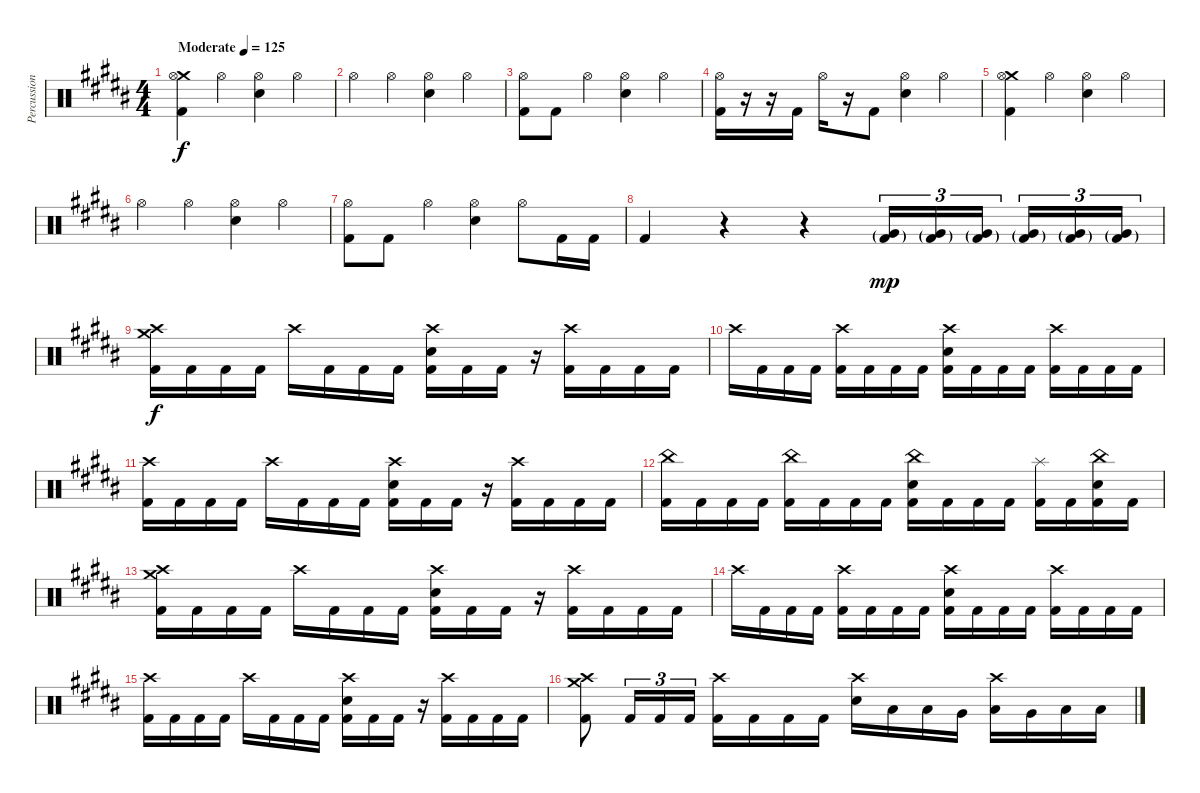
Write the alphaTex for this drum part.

\track ("Percussion" "Percussion") {instrument percussion}
\staff {score}
\articulation defaults
\ts (4 4)
\tempo (125 "Moderate")
\clef neutral
\ks g#minor
("Crash medium (hit)" "Hi-Hat (open)" "Kick (hit) 2").4{dy f} "Hi-Hat (open)".4 ("Hi-Hat (open)" "Electric Snare (hit)").4 "Hi-Hat (open)".4 |
"Hi-Hat (open)".4 "Hi-Hat (open)".4 ("Hi-Hat (open)" "Electric Snare (hit)").4 "Hi-Hat (open)".4 |
("Hi-Hat (open)" "Kick (hit) 2").8 "Kick (hit) 2".8 "Hi-Hat (open)".4 ("Hi-Hat (open)" "Electric Snare (hit)").4 "Hi-Hat (open)".4 |
("Hi-Hat (open)" "Kick (hit) 2").16 r.16 r.16 "Kick (hit) 2".16 "Hi-Hat (open)".16 r.16 "Kick (hit) 2".8 ("Hi-Hat (open)" "Electric Snare (hit)").4 "Hi-Hat (open)".4 |
("Crash medium (hit)" "Hi-Hat (open)" "Kick (hit) 2").4 "Hi-Hat (open)".4 ("Hi-Hat (open)" "Electric Snare (hit)").4 "Hi-Hat (open)".4 |
"Hi-Hat (open)".4 "Hi-Hat (open)".4 ("Hi-Hat (open)" "Electric Snare (hit)").4 "Hi-Hat (open)".4 |
("Hi-Hat (open)" "Kick (hit) 2").8 "Kick (hit) 2".8 "Hi-Hat (open)".4 ("Hi-Hat (open)" "Electric Snare (hit)").4 "Hi-Hat (open)".8 "Kick (hit) 2".16 "Kick (hit) 2".16 |
"Kick (hit) 2".4 r.4 r.4 ("Very Low Tom (hit)"{g} "Kick (hit) 2"{g}).16{tu (3 2) dy mp} ("Very Low Tom (hit)"{g} "Kick (hit) 2"{g}).16{tu (3 2)} ("Very Low Tom (hit)"{g} "Kick (hit) 2"{g}).16{tu (3 2) beam splitsecondary} ("Very Low Tom (hit)"{g} "Kick (hit) 2"{g}).16{tu (3 2)} ("Very Low Tom (hit)"{g} "Kick (hit) 2"{g}).16{tu (3 2)} ("Very Low Tom (hit)"{g} "Kick (hit) 2"{g}).16{tu (3 2)} |
("Crash medium (hit)" "Crash high (hit)" "Kick (hit) 2").16{dy f} "Kick (hit) 2".16 "Kick (hit) 2".16 "Kick (hit) 2".16 "Crash high (hit)".16 "Kick (hit) 2".16 "Kick (hit) 2".16 "Kick (hit) 2".16 ("Crash high (hit)" "Electric Snare (hit)" "Kick (hit) 2").16 "Kick (hit) 2".16 "Kick (hit) 2".16 r.16 ("Crash high (hit)" "Kick (hit) 2").16 "Kick (hit) 2".16 "Kick (hit) 2".16 "Kick (hit) 2".16 |
"Crash high (hit)".16 "Kick (hit) 2".16 "Kick (hit) 2".16 "Kick (hit) 2".16 ("Crash high (hit)" "Kick (hit) 2").16 "Kick (hit) 2".16 "Kick (hit) 2".16 "Kick (hit) 2".16 ("Crash high (hit)" "Electric Snare (hit)" "Kick (hit) 2").16 "Kick (hit) 2".16 "Kick (hit) 2".16 "Kick (hit) 2".16 ("Crash high (hit)" "Kick (hit) 2").16 "Kick (hit) 2".16 "Kick (hit) 2".16 "Kick (hit) 2".16 |
("Crash high (hit)" "Kick (hit) 2").16 "Kick (hit) 2".16 "Kick (hit) 2".16 "Kick (hit) 2".16 "Crash high (hit)".16 "Kick (hit) 2".16 "Kick (hit) 2".16 "Kick (hit) 2".16 ("Crash high (hit)" "Electric Snare (hit)" "Kick (hit) 2").16 "Kick (hit) 2".16 "Kick (hit) 2".16 r.16 ("Crash high (hit)" "Kick (hit) 2").16 "Kick (hit) 2".16 "Kick (hit) 2".16 "Kick (hit) 2".16 |
("China (hit)" "Kick (hit) 2").16 "Kick (hit) 2".16 "Kick (hit) 2".16 "Kick (hit) 2".16 ("China (hit)" "Kick (hit) 2").16 "Kick (hit) 2".16 "Kick (hit) 2".16 "Kick (hit) 2".16 ("China (hit)" "Electric Snare (hit)" "Kick (hit) 2").16 "Kick (hit) 2".16 "Kick (hit) 2".16 "Kick (hit) 2".16 ("Splash (hit)" "Kick (hit) 2").16 "Kick (hit) 2".16 ("China (hit)" "Electric Snare (hit)" "Kick (hit) 2").16 "Kick (hit) 2".16 |
("Crash medium (hit)" "Crash high (hit)" "Kick (hit) 2").16 "Kick (hit) 2".16 "Kick (hit) 2".16 "Kick (hit) 2".16 "Crash high (hit)".16 "Kick (hit) 2".16 "Kick (hit) 2".16 "Kick (hit) 2".16 ("Crash high (hit)" "Electric Snare (hit)" "Kick (hit) 2").16 "Kick (hit) 2".16 "Kick (hit) 2".16 r.16 ("Crash high (hit)" "Kick (hit) 2").16 "Kick (hit) 2".16 "Kick (hit) 2".16 "Kick (hit) 2".16 |
"Crash high (hit)".16 "Kick (hit) 2".16 "Kick (hit) 2".16 "Kick (hit) 2".16 ("Crash high (hit)" "Kick (hit) 2").16 "Kick (hit) 2".16 "Kick (hit) 2".16 "Kick (hit) 2".16 ("Crash high (hit)" "Electric Snare (hit)" "Kick (hit) 2").16 "Kick (hit) 2".16 "Kick (hit) 2".16 "Kick (hit) 2".16 ("Crash high (hit)" "Kick (hit) 2").16 "Kick (hit) 2".16 "Kick (hit) 2".16 "Kick (hit) 2".16 |
("Crash high (hit)" "Kick (hit) 2").16 "Kick (hit) 2".16 "Kick (hit) 2".16 "Kick (hit) 2".16 "Crash high (hit)".16 "Kick (hit) 2".16 "Kick (hit) 2".16 "Kick (hit) 2".16 ("Crash high (hit)" "Electric Snare (hit)" "Kick (hit) 2").16 "Kick (hit) 2".16 "Kick (hit) 2".16 r.16 ("Crash high (hit)" "Kick (hit) 2").16 "Kick (hit) 2".16 "Kick (hit) 2".16 "Kick (hit) 2".16 |
("Crash medium (hit)" "Crash high (hit)" "Kick (hit) 2").8 "Kick (hit) 2".16{tu (3 2)} "Kick (hit) 2".16{tu (3 2)} "Kick (hit) 2".16{tu (3 2)} ("Crash high (hit)" "Kick (hit) 2").16 "Kick (hit) 2".16 "Kick (hit) 2".16 "Kick (hit) 2".16 ("Crash high (hit)" "Electric Snare (hit)").16 "Low Tom (hit)".16 "Low Tom (hit)".16 "Very Low Tom (hit)".16 ("Crash high (hit)" "Low Tom (hit)").16 "Very Low Tom (hit)".16 "Low Floor Tom (hit)".16 "Low Floor Tom (hit)".16
